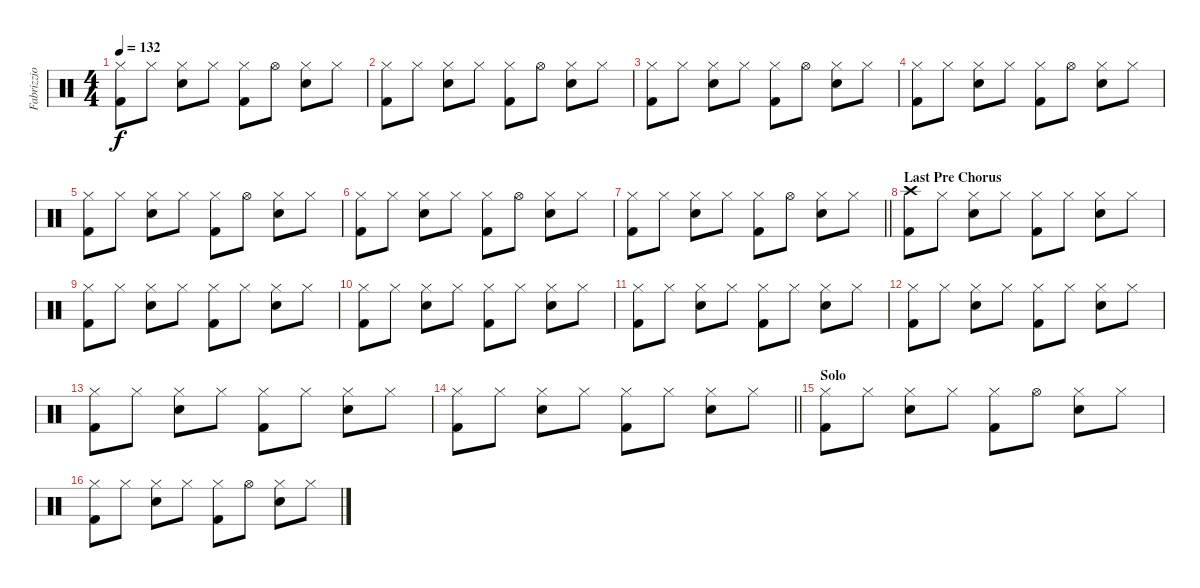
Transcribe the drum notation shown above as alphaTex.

\track ("Fabrizzio" "Fabrizzio") {instrument percussion}
\staff {score}
\articulation defaults
\ts (4 4)
\tempo 132
\clef neutral
\ks c
("Hi-Hat (closed)" "Kick (hit) 2").8{dy f} "Hi-Hat (closed)".8 ("Hi-Hat (closed)" "Snare (hit) 2").8 "Hi-Hat (closed)".8 ("Hi-Hat (closed)" "Kick (hit) 2").8 "Hi-Hat (open)".8 ("Hi-Hat (closed)" "Snare (hit) 2").8 "Hi-Hat (closed)".8 |
("Hi-Hat (closed)" "Kick (hit) 2").8 "Hi-Hat (closed)".8 ("Hi-Hat (closed)" "Snare (hit) 2").8 "Hi-Hat (closed)".8 ("Hi-Hat (closed)" "Kick (hit) 2").8 "Hi-Hat (open)".8 ("Hi-Hat (closed)" "Snare (hit) 2").8 "Hi-Hat (closed)".8 |
("Hi-Hat (closed)" "Kick (hit) 2").8 "Hi-Hat (closed)".8 ("Hi-Hat (closed)" "Snare (hit) 2").8 "Hi-Hat (closed)".8 ("Hi-Hat (closed)" "Kick (hit) 2").8 "Hi-Hat (open)".8 ("Hi-Hat (closed)" "Snare (hit) 2").8 "Hi-Hat (closed)".8 |
("Hi-Hat (closed)" "Kick (hit) 2").8 "Hi-Hat (closed)".8 ("Hi-Hat (closed)" "Snare (hit) 2").8 "Hi-Hat (closed)".8 ("Hi-Hat (closed)" "Kick (hit) 2").8 "Hi-Hat (open)".8 ("Hi-Hat (closed)" "Snare (hit) 2").8 "Hi-Hat (closed)".8 |
("Hi-Hat (closed)" "Kick (hit) 2").8 "Hi-Hat (closed)".8 ("Hi-Hat (closed)" "Snare (hit) 2").8 "Hi-Hat (closed)".8 ("Hi-Hat (closed)" "Kick (hit) 2").8 "Hi-Hat (open)".8 ("Hi-Hat (closed)" "Snare (hit) 2").8 "Hi-Hat (closed)".8 |
("Hi-Hat (closed)" "Kick (hit) 2").8 "Hi-Hat (closed)".8 ("Hi-Hat (closed)" "Snare (hit) 2").8 "Hi-Hat (closed)".8 ("Hi-Hat (closed)" "Kick (hit) 2").8 "Hi-Hat (open)".8 ("Hi-Hat (closed)" "Snare (hit) 2").8 "Hi-Hat (closed)".8 |
\barLineRight lightlight
("Hi-Hat (closed)" "Kick (hit) 2").8 "Hi-Hat (closed)".8 ("Hi-Hat (closed)" "Snare (hit) 2").8 "Hi-Hat (closed)".8 ("Hi-Hat (closed)" "Kick (hit) 2").8 "Hi-Hat (open)".8 ("Hi-Hat (closed)" "Snare (hit) 2").8 "Hi-Hat (closed)".8 |
\section ("" "Last Pre Chorus")
("Crash high (hit)" "Kick (hit) 2").8 "Hi-Hat (closed)".8 ("Hi-Hat (closed)" "Snare (hit) 2").8 "Hi-Hat (closed)".8 ("Hi-Hat (closed)" "Kick (hit) 2").8 "Hi-Hat (closed)".8 ("Hi-Hat (closed)" "Snare (hit) 2").8 "Hi-Hat (closed)".8 |
("Hi-Hat (closed)" "Kick (hit) 2").8 "Hi-Hat (closed)".8 ("Hi-Hat (closed)" "Snare (hit) 2").8 "Hi-Hat (closed)".8 ("Hi-Hat (closed)" "Kick (hit) 2").8 "Hi-Hat (closed)".8 ("Hi-Hat (closed)" "Snare (hit) 2").8 "Hi-Hat (closed)".8 |
("Hi-Hat (closed)" "Kick (hit) 2").8 "Hi-Hat (closed)".8 ("Hi-Hat (closed)" "Snare (hit) 2").8 "Hi-Hat (closed)".8 ("Hi-Hat (closed)" "Kick (hit) 2").8 "Hi-Hat (closed)".8 ("Hi-Hat (closed)" "Snare (hit) 2").8 "Hi-Hat (closed)".8 |
("Hi-Hat (closed)" "Kick (hit) 2").8 "Hi-Hat (closed)".8 ("Hi-Hat (closed)" "Snare (hit) 2").8 "Hi-Hat (closed)".8 ("Hi-Hat (closed)" "Kick (hit) 2").8 "Hi-Hat (closed)".8 ("Hi-Hat (closed)" "Snare (hit) 2").8 "Hi-Hat (closed)".8 |
("Hi-Hat (closed)" "Kick (hit) 2").8 "Hi-Hat (closed)".8 ("Hi-Hat (closed)" "Snare (hit) 2").8 "Hi-Hat (closed)".8 ("Hi-Hat (closed)" "Kick (hit) 2").8 "Hi-Hat (closed)".8 ("Hi-Hat (closed)" "Snare (hit) 2").8 "Hi-Hat (closed)".8 |
("Hi-Hat (closed)" "Kick (hit) 2").8 "Hi-Hat (closed)".8 ("Hi-Hat (closed)" "Snare (hit) 2").8 "Hi-Hat (closed)".8 ("Hi-Hat (closed)" "Kick (hit) 2").8 "Hi-Hat (closed)".8 ("Hi-Hat (closed)" "Snare (hit) 2").8 "Hi-Hat (closed)".8 |
\barLineRight lightlight
("Hi-Hat (closed)" "Kick (hit) 2").8 "Hi-Hat (closed)".8 ("Hi-Hat (closed)" "Snare (hit) 2").8 "Hi-Hat (closed)".8 ("Hi-Hat (closed)" "Kick (hit) 2").8 "Hi-Hat (closed)".8 ("Hi-Hat (closed)" "Snare (hit) 2").8 "Hi-Hat (closed)".8 |
\section ("" "Solo")
("Hi-Hat (closed)" "Kick (hit) 2").8 "Hi-Hat (closed)".8 ("Hi-Hat (closed)" "Snare (hit) 2").8 "Hi-Hat (closed)".8 ("Hi-Hat (closed)" "Kick (hit) 2").8 "Hi-Hat (open)".8 ("Hi-Hat (closed)" "Snare (hit) 2").8 "Hi-Hat (closed)".8 |
("Hi-Hat (closed)" "Kick (hit) 2").8 "Hi-Hat (closed)".8 ("Hi-Hat (closed)" "Snare (hit) 2").8 "Hi-Hat (closed)".8 ("Hi-Hat (closed)" "Kick (hit) 2").8 "Hi-Hat (open)".8 ("Hi-Hat (closed)" "Snare (hit) 2").8 "Hi-Hat (closed)".8
